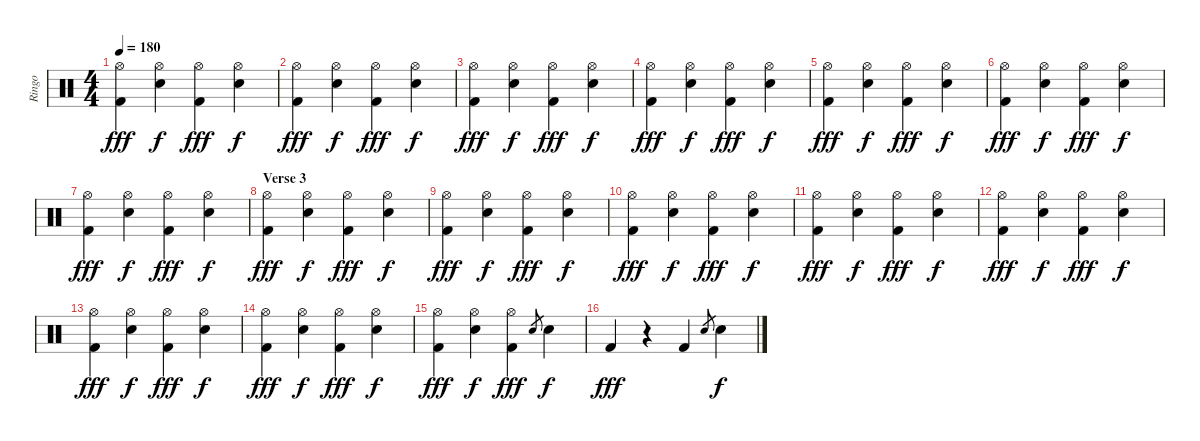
\track ("Ringo" "Ringo") {instrument percussion}
\staff {score}
\articulation defaults
\ts (4 4)
\tempo 180
\clef neutral
\ks c
("Hi-Hat (open)" "Kick (hit) 2").4{dy fff} ("Hi-Hat (open)" "Snare (hit) 2").4{dy f} ("Hi-Hat (open)" "Kick (hit) 2").4{dy fff} ("Hi-Hat (open)" "Snare (hit) 2").4{dy f} |
("Hi-Hat (open)" "Kick (hit) 2").4{dy fff} ("Hi-Hat (open)" "Snare (hit) 2").4{dy f} ("Hi-Hat (open)" "Kick (hit) 2").4{dy fff} ("Hi-Hat (open)" "Snare (hit) 2").4{dy f} |
("Hi-Hat (open)" "Kick (hit) 2").4{dy fff} ("Hi-Hat (open)" "Snare (hit) 2").4{dy f} ("Hi-Hat (open)" "Kick (hit) 2").4{dy fff} ("Hi-Hat (open)" "Snare (hit) 2").4{dy f} |
("Hi-Hat (open)" "Kick (hit) 2").4{dy fff} ("Hi-Hat (open)" "Snare (hit) 2").4{dy f} ("Hi-Hat (open)" "Kick (hit) 2").4{dy fff} ("Hi-Hat (open)" "Snare (hit) 2").4{dy f} |
("Hi-Hat (open)" "Kick (hit) 2").4{dy fff} ("Hi-Hat (open)" "Snare (hit) 2").4{dy f} ("Hi-Hat (open)" "Kick (hit) 2").4{dy fff} ("Hi-Hat (open)" "Snare (hit) 2").4{dy f} |
("Hi-Hat (open)" "Kick (hit) 2").4{dy fff} ("Hi-Hat (open)" "Snare (hit) 2").4{dy f} ("Hi-Hat (open)" "Kick (hit) 2").4{dy fff} ("Hi-Hat (open)" "Snare (hit) 2").4{dy f} |
("Hi-Hat (open)" "Kick (hit) 2").4{dy fff} ("Hi-Hat (open)" "Snare (hit) 2").4{dy f} ("Hi-Hat (open)" "Kick (hit) 2").4{dy fff} ("Hi-Hat (open)" "Snare (hit) 2").4{dy f} |
\section ("" "Verse 3")
("Hi-Hat (open)" "Kick (hit) 2").4{dy fff} ("Hi-Hat (open)" "Snare (hit) 2").4{dy f} ("Hi-Hat (open)" "Kick (hit) 2").4{dy fff} ("Hi-Hat (open)" "Snare (hit) 2").4{dy f} |
("Hi-Hat (open)" "Kick (hit) 2").4{dy fff} ("Hi-Hat (open)" "Snare (hit) 2").4{dy f} ("Hi-Hat (open)" "Kick (hit) 2").4{dy fff} ("Hi-Hat (open)" "Snare (hit) 2").4{dy f} |
("Hi-Hat (open)" "Kick (hit) 2").4{dy fff} ("Hi-Hat (open)" "Snare (hit) 2").4{dy f} ("Hi-Hat (open)" "Kick (hit) 2").4{dy fff} ("Hi-Hat (open)" "Snare (hit) 2").4{dy f} |
("Hi-Hat (open)" "Kick (hit) 2").4{dy fff} ("Hi-Hat (open)" "Snare (hit) 2").4{dy f} ("Hi-Hat (open)" "Kick (hit) 2").4{dy fff} ("Hi-Hat (open)" "Snare (hit) 2").4{dy f} |
("Hi-Hat (open)" "Kick (hit) 2").4{dy fff} ("Hi-Hat (open)" "Snare (hit) 2").4{dy f} ("Hi-Hat (open)" "Kick (hit) 2").4{dy fff} ("Hi-Hat (open)" "Snare (hit) 2").4{dy f} |
("Hi-Hat (open)" "Kick (hit) 2").4{dy fff} ("Hi-Hat (open)" "Snare (hit) 2").4{dy f} ("Hi-Hat (open)" "Kick (hit) 2").4{dy fff} ("Hi-Hat (open)" "Snare (hit) 2").4{dy f} |
("Hi-Hat (open)" "Kick (hit) 2").4{dy fff} ("Hi-Hat (open)" "Snare (hit) 2").4{dy f} ("Hi-Hat (open)" "Kick (hit) 2").4{dy fff} ("Hi-Hat (open)" "Snare (hit) 2").4{dy f} |
("Hi-Hat (open)" "Kick (hit) 2").4{dy fff} ("Hi-Hat (open)" "Snare (hit) 2").4{dy f} ("Hi-Hat (open)" "Kick (hit) 2").4{dy fff} "Snare (hit) 2".8{gr} "Snare (hit) 2".4{dy f} |
"Kick (hit) 2".4{dy fff} r.4 "Kick (hit) 2".4 "Snare (hit) 2".8{gr} "Snare (hit) 2".4{dy f}
